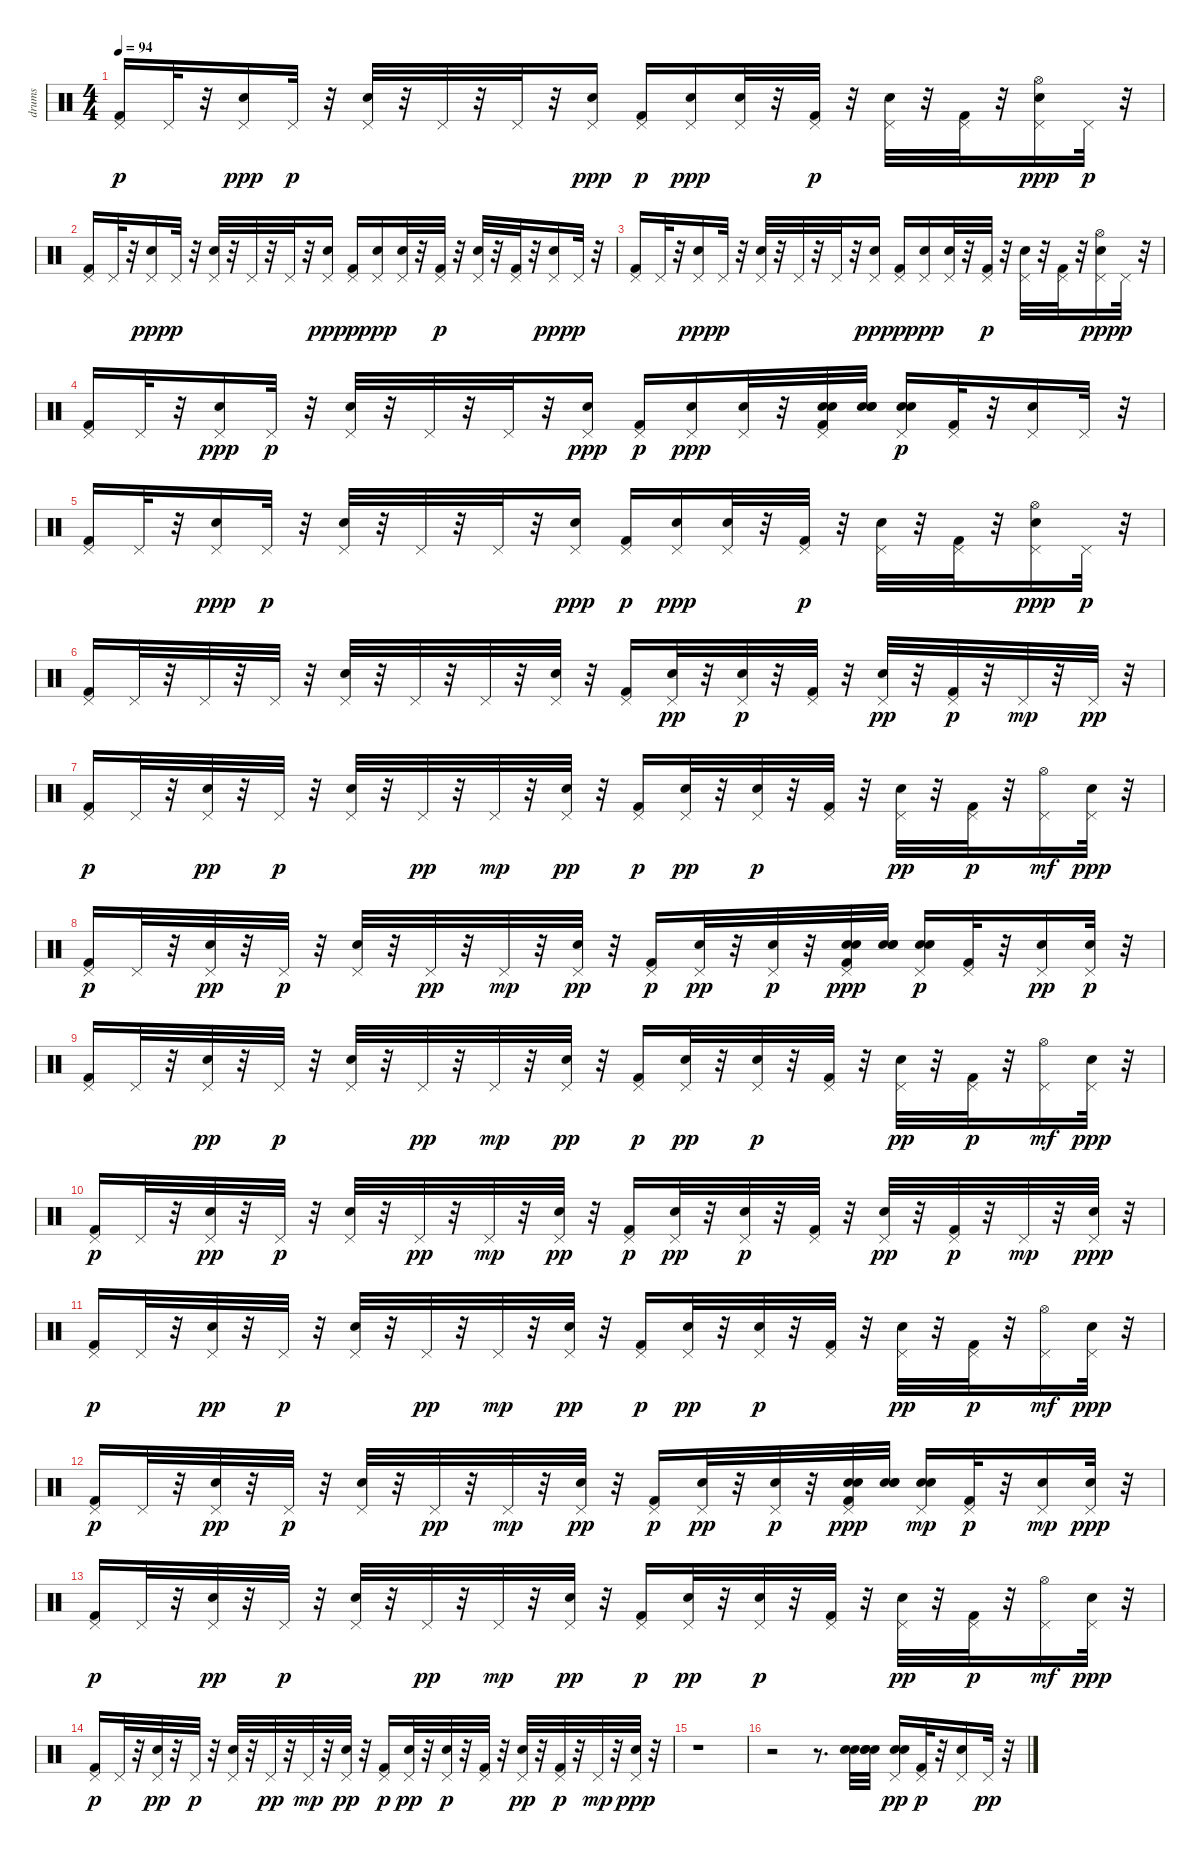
\track ("drums" "drums") {instrument percussion}
\staff {score}
\articulation defaults
\ts (4 4)
\tempo 94
\clef neutral
\ks c
("Pedal Hi-Hat (hit)" "Kick (hit) 2").16{dy p} "Pedal Hi-Hat (hit)".32 r.32 ("Pedal Hi-Hat (hit)" "Snare (hit) 2").16{dy ppp} "Pedal Hi-Hat (hit)".32{dy p} r.32 ("Snare (hit) 2" "Pedal Hi-Hat (hit)").32 r.32 "Pedal Hi-Hat (hit)".32 r.32 "Pedal Hi-Hat (hit)".32 r.32 ("Pedal Hi-Hat (hit)" "Snare (hit) 2").16{dy ppp} ("Pedal Hi-Hat (hit)" "Kick (hit) 2").16{dy p} ("Pedal Hi-Hat (hit)" "Snare (hit) 2").16{dy ppp} ("Pedal Hi-Hat (hit)" "Snare (hit) 2").32 r.32 ("Pedal Hi-Hat (hit)" "Kick (hit) 2").32{dy p} r.32 ("Snare (hit) 2" "Pedal Hi-Hat (hit)").32 r.32 ("Pedal Hi-Hat (hit)" "Kick (hit) 2").32 r.32 ("Hi-Hat (open)" "Pedal Hi-Hat (hit)" "Snare (hit) 2").16{dy ppp} "Pedal Hi-Hat (hit)".32{dy p} r.32 |
("Pedal Hi-Hat (hit)" "Kick (hit) 2").16 "Pedal Hi-Hat (hit)".32 r.32 ("Pedal Hi-Hat (hit)" "Snare (hit) 2").16{dy ppp} "Pedal Hi-Hat (hit)".32{dy p} r.32 ("Snare (hit) 2" "Pedal Hi-Hat (hit)").32 r.32 "Pedal Hi-Hat (hit)".32 r.32 "Pedal Hi-Hat (hit)".32 r.32 ("Pedal Hi-Hat (hit)" "Snare (hit) 2").16{dy ppp} ("Pedal Hi-Hat (hit)" "Kick (hit) 2").16{dy p} ("Pedal Hi-Hat (hit)" "Snare (hit) 2").16{dy ppp} ("Pedal Hi-Hat (hit)" "Snare (hit) 2").32 r.32 ("Pedal Hi-Hat (hit)" "Kick (hit) 2").32{dy p} r.32 ("Snare (hit) 2" "Pedal Hi-Hat (hit)").32 r.32 ("Pedal Hi-Hat (hit)" "Kick (hit) 2").32 r.32 ("Pedal Hi-Hat (hit)" "Snare (hit) 2").16{dy ppp} "Pedal Hi-Hat (hit)".32{dy p} r.32 |
("Pedal Hi-Hat (hit)" "Kick (hit) 2").16 "Pedal Hi-Hat (hit)".32 r.32 ("Pedal Hi-Hat (hit)" "Snare (hit) 2").16{dy ppp} "Pedal Hi-Hat (hit)".32{dy p} r.32 ("Snare (hit) 2" "Pedal Hi-Hat (hit)").32 r.32 "Pedal Hi-Hat (hit)".32 r.32 "Pedal Hi-Hat (hit)".32 r.32 ("Pedal Hi-Hat (hit)" "Snare (hit) 2").16{dy ppp} ("Pedal Hi-Hat (hit)" "Kick (hit) 2").16{dy p} ("Pedal Hi-Hat (hit)" "Snare (hit) 2").16{dy ppp} ("Pedal Hi-Hat (hit)" "Snare (hit) 2").32 r.32 ("Pedal Hi-Hat (hit)" "Kick (hit) 2").32{dy p} r.32 ("Snare (hit) 2" "Pedal Hi-Hat (hit)").32 r.32 ("Pedal Hi-Hat (hit)" "Kick (hit) 2").32 r.32 ("Hi-Hat (open)" "Pedal Hi-Hat (hit)" "Snare (hit) 2").16{dy ppp} "Pedal Hi-Hat (hit)".32{dy p} r.32 |
("Pedal Hi-Hat (hit)" "Kick (hit) 2").16 "Pedal Hi-Hat (hit)".32 r.32 ("Pedal Hi-Hat (hit)" "Snare (hit) 2").16{dy ppp} "Pedal Hi-Hat (hit)".32{dy p} r.32 ("Snare (hit) 2" "Pedal Hi-Hat (hit)").32 r.32 "Pedal Hi-Hat (hit)".32 r.32 "Pedal Hi-Hat (hit)".32 r.32 ("Pedal Hi-Hat (hit)" "Snare (hit) 2").16{dy ppp} ("Pedal Hi-Hat (hit)" "Kick (hit) 2").16{dy p} ("Pedal Hi-Hat (hit)" "Snare (hit) 2").16{dy ppp} ("Pedal Hi-Hat (hit)" "Snare (hit) 2").32 r.32 ("Snare (hit) 2" "Pedal Hi-Hat (hit)" "Kick (hit) 2" "Snare (hit) 2").32{balance 0} ("Snare (hit) 2" "Snare (hit) 2" "Snare (hit) 2").32 ("Snare (hit) 2" "Snare (hit) 2" "Pedal Hi-Hat (hit)").16{dy p} ("Pedal Hi-Hat (hit)" "Kick (hit) 2").32{balance 8} r.32 ("Snare (hit) 2" "Pedal Hi-Hat (hit)").16 "Pedal Hi-Hat (hit)".32 r.32 |
("Pedal Hi-Hat (hit)" "Kick (hit) 2").16 "Pedal Hi-Hat (hit)".32 r.32 ("Pedal Hi-Hat (hit)" "Snare (hit) 2").16{dy ppp} "Pedal Hi-Hat (hit)".32{dy p} r.32 ("Snare (hit) 2" "Pedal Hi-Hat (hit)").32 r.32 "Pedal Hi-Hat (hit)".32 r.32 "Pedal Hi-Hat (hit)".32 r.32 ("Pedal Hi-Hat (hit)" "Snare (hit) 2").16{dy ppp} ("Pedal Hi-Hat (hit)" "Kick (hit) 2").16{dy p} ("Pedal Hi-Hat (hit)" "Snare (hit) 2").16{dy ppp} ("Pedal Hi-Hat (hit)" "Snare (hit) 2").32 r.32 ("Pedal Hi-Hat (hit)" "Kick (hit) 2").32{dy p} r.32 ("Snare (hit) 2" "Pedal Hi-Hat (hit)").32 r.32 ("Pedal Hi-Hat (hit)" "Kick (hit) 2").32 r.32 ("Hi-Hat (open)" "Pedal Hi-Hat (hit)" "Snare (hit) 2").16{dy ppp} "Pedal Hi-Hat (hit)".32{dy p} r.32 |
("Pedal Hi-Hat (hit)" "Kick (hit) 2").16 "Pedal Hi-Hat (hit)".32 r.32 "Pedal Hi-Hat (hit)".32 r.32 "Pedal Hi-Hat (hit)".32 r.32 ("Snare (hit) 2" "Pedal Hi-Hat (hit)").32 r.32 "Pedal Hi-Hat (hit)".32 r.32 "Pedal Hi-Hat (hit)".32 r.32 ("Electric Snare (hit)" "Pedal Hi-Hat (hit)").32{volume 14} r.32 ("Pedal Hi-Hat (hit)" "Kick (hit) 2").16 ("Pedal Hi-Hat (hit)" "Electric Snare (hit)").32{dy pp} r.32 ("Pedal Hi-Hat (hit)" "Electric Snare (hit)").32{dy p} r.32 ("Pedal Hi-Hat (hit)" "Kick (hit) 2").32 r.32 ("Pedal Hi-Hat (hit)" "Electric Snare (hit)").32{dy pp} r.32 ("Pedal Hi-Hat (hit)" "Kick (hit) 2").32{dy p} r.32 "Pedal Hi-Hat (hit)".32{dy mp} r.32 "Pedal Hi-Hat (hit)".32{dy pp} r.32 |
("Pedal Hi-Hat (hit)" "Kick (hit) 2").16{dy p} "Pedal Hi-Hat (hit)".32 r.32 ("Pedal Hi-Hat (hit)" "Electric Snare (hit)").32{dy pp} r.32 "Pedal Hi-Hat (hit)".32{dy p} r.32 ("Pedal Hi-Hat (hit)" "Electric Snare (hit)").32 r.32 "Pedal Hi-Hat (hit)".32{dy pp} r.32 "Pedal Hi-Hat (hit)".32{dy mp} r.32 ("Pedal Hi-Hat (hit)" "Electric Snare (hit)").32{dy pp} r.32 ("Pedal Hi-Hat (hit)" "Kick (hit) 2").16{dy p} ("Pedal Hi-Hat (hit)" "Electric Snare (hit)").32{dy pp} r.32 ("Pedal Hi-Hat (hit)" "Electric Snare (hit)").32{dy p} r.32 ("Pedal Hi-Hat (hit)" "Kick (hit) 2").32 r.32 ("Pedal Hi-Hat (hit)" "Electric Snare (hit)").32{dy pp} r.32 ("Pedal Hi-Hat (hit)" "Kick (hit) 2").32{dy p} r.32 ("Hi-Hat (open)" "Pedal Hi-Hat (hit)").16{dy mf} ("Pedal Hi-Hat (hit)" "Electric Snare (hit)").32{dy ppp} r.32 |
("Pedal Hi-Hat (hit)" "Kick (hit) 2").16{dy p} "Pedal Hi-Hat (hit)".32 r.32 ("Pedal Hi-Hat (hit)" "Electric Snare (hit)").32{dy pp} r.32 "Pedal Hi-Hat (hit)".32{dy p} r.32 ("Pedal Hi-Hat (hit)" "Electric Snare (hit)").32 r.32 "Pedal Hi-Hat (hit)".32{dy pp} r.32 "Pedal Hi-Hat (hit)".32{dy mp} r.32 ("Pedal Hi-Hat (hit)" "Electric Snare (hit)").32{dy pp} r.32 ("Pedal Hi-Hat (hit)" "Kick (hit) 2").16{dy p} ("Pedal Hi-Hat (hit)" "Electric Snare (hit)").32{dy pp} r.32 ("Pedal Hi-Hat (hit)" "Electric Snare (hit)").32{dy p} r.32 ("Pedal Hi-Hat (hit)" "Snare (hit) 2" "Kick (hit) 2" "Snare (hit) 2").32{dy ppp balance 0} ("Snare (hit) 2" "Snare (hit) 2" "Snare (hit) 2").32 ("Snare (hit) 2" "Pedal Hi-Hat (hit)" "Snare (hit) 2").16{dy p} ("Pedal Hi-Hat (hit)" "Kick (hit) 2").32 r.32 ("Pedal Hi-Hat (hit)" "Snare (hit) 2").16{dy pp} ("Electric Snare (hit)" "Pedal Hi-Hat (hit)").32{dy p} r.32 |
("Pedal Hi-Hat (hit)" "Kick (hit) 2").16 "Pedal Hi-Hat (hit)".32 r.32 ("Pedal Hi-Hat (hit)" "Electric Snare (hit)").32{dy pp} r.32 "Pedal Hi-Hat (hit)".32{dy p} r.32 ("Pedal Hi-Hat (hit)" "Electric Snare (hit)").32 r.32 "Pedal Hi-Hat (hit)".32{dy pp} r.32 "Pedal Hi-Hat (hit)".32{dy mp} r.32 ("Pedal Hi-Hat (hit)" "Electric Snare (hit)").32{dy pp} r.32 ("Pedal Hi-Hat (hit)" "Kick (hit) 2").16{dy p} ("Pedal Hi-Hat (hit)" "Electric Snare (hit)").32{dy pp} r.32 ("Pedal Hi-Hat (hit)" "Electric Snare (hit)").32{dy p} r.32 ("Pedal Hi-Hat (hit)" "Kick (hit) 2").32 r.32 ("Pedal Hi-Hat (hit)" "Electric Snare (hit)").32{dy pp} r.32 ("Pedal Hi-Hat (hit)" "Kick (hit) 2").32{dy p} r.32 ("Hi-Hat (open)" "Pedal Hi-Hat (hit)").16{dy mf} ("Pedal Hi-Hat (hit)" "Electric Snare (hit)").32{dy ppp} r.32 |
("Pedal Hi-Hat (hit)" "Kick (hit) 2").16{dy p} "Pedal Hi-Hat (hit)".32 r.32 ("Pedal Hi-Hat (hit)" "Electric Snare (hit)").32{dy pp} r.32 "Pedal Hi-Hat (hit)".32{dy p} r.32 ("Pedal Hi-Hat (hit)" "Electric Snare (hit)").32 r.32 "Pedal Hi-Hat (hit)".32{dy pp} r.32 "Pedal Hi-Hat (hit)".32{dy mp} r.32 ("Pedal Hi-Hat (hit)" "Electric Snare (hit)").32{dy pp} r.32 ("Pedal Hi-Hat (hit)" "Kick (hit) 2").16{dy p} ("Pedal Hi-Hat (hit)" "Electric Snare (hit)").32{dy pp} r.32 ("Pedal Hi-Hat (hit)" "Electric Snare (hit)").32{dy p} r.32 ("Pedal Hi-Hat (hit)" "Kick (hit) 2").32 r.32 ("Pedal Hi-Hat (hit)" "Electric Snare (hit)").32{dy pp} r.32 ("Pedal Hi-Hat (hit)" "Kick (hit) 2").32{dy p} r.32 "Pedal Hi-Hat (hit)".32{dy mp} r.32 ("Pedal Hi-Hat (hit)" "Electric Snare (hit)").32{dy ppp} r.32 |
("Pedal Hi-Hat (hit)" "Kick (hit) 2").16{dy p} "Pedal Hi-Hat (hit)".32 r.32 ("Pedal Hi-Hat (hit)" "Electric Snare (hit)").32{dy pp} r.32 "Pedal Hi-Hat (hit)".32{dy p} r.32 ("Pedal Hi-Hat (hit)" "Electric Snare (hit)").32 r.32 "Pedal Hi-Hat (hit)".32{dy pp} r.32 "Pedal Hi-Hat (hit)".32{dy mp} r.32 ("Pedal Hi-Hat (hit)" "Electric Snare (hit)").32{dy pp} r.32 ("Pedal Hi-Hat (hit)" "Kick (hit) 2").16{dy p} ("Pedal Hi-Hat (hit)" "Electric Snare (hit)").32{dy pp} r.32 ("Pedal Hi-Hat (hit)" "Electric Snare (hit)").32{dy p} r.32 ("Pedal Hi-Hat (hit)" "Kick (hit) 2").32 r.32 ("Pedal Hi-Hat (hit)" "Electric Snare (hit)").32{dy pp} r.32 ("Pedal Hi-Hat (hit)" "Kick (hit) 2").32{dy p} r.32 ("Hi-Hat (open)" "Pedal Hi-Hat (hit)").16{dy mf} ("Pedal Hi-Hat (hit)" "Electric Snare (hit)").32{dy ppp} r.32 |
("Pedal Hi-Hat (hit)" "Kick (hit) 2").16{dy p} "Pedal Hi-Hat (hit)".32 r.32 ("Pedal Hi-Hat (hit)" "Electric Snare (hit)").32{dy pp} r.32 "Pedal Hi-Hat (hit)".32{dy p} r.32 ("Pedal Hi-Hat (hit)" "Electric Snare (hit)").32 r.32 "Pedal Hi-Hat (hit)".32{dy pp} r.32 "Pedal Hi-Hat (hit)".32{dy mp} r.32 ("Pedal Hi-Hat (hit)" "Electric Snare (hit)").32{dy pp} r.32 ("Pedal Hi-Hat (hit)" "Kick (hit) 2").16{dy p} ("Pedal Hi-Hat (hit)" "Electric Snare (hit)").32{dy pp} r.32 ("Pedal Hi-Hat (hit)" "Electric Snare (hit)").32{dy p} r.32 ("Snare (hit) 2" "Pedal Hi-Hat (hit)" "Kick (hit) 2" "Snare (hit) 2").32{dy ppp balance 0} ("Snare (hit) 2" "Snare (hit) 2" "Snare (hit) 2").32 ("Snare (hit) 2" "Snare (hit) 2" "Pedal Hi-Hat (hit)").16{dy mp} ("Pedal Hi-Hat (hit)" "Kick (hit) 2").32{dy p} r.32 ("Snare (hit) 2" "Pedal Hi-Hat (hit)").16{dy mp} ("Pedal Hi-Hat (hit)" "Electric Snare (hit)").32{dy ppp} r.32 |
("Pedal Hi-Hat (hit)" "Kick (hit) 2").16{dy p} "Pedal Hi-Hat (hit)".32 r.32 ("Pedal Hi-Hat (hit)" "Electric Snare (hit)").32{dy pp} r.32 "Pedal Hi-Hat (hit)".32{dy p} r.32 ("Pedal Hi-Hat (hit)" "Electric Snare (hit)").32 r.32 "Pedal Hi-Hat (hit)".32{dy pp} r.32 "Pedal Hi-Hat (hit)".32{dy mp} r.32 ("Pedal Hi-Hat (hit)" "Electric Snare (hit)").32{dy pp} r.32 ("Pedal Hi-Hat (hit)" "Kick (hit) 2").16{dy p} ("Pedal Hi-Hat (hit)" "Electric Snare (hit)").32{dy pp} r.32 ("Pedal Hi-Hat (hit)" "Electric Snare (hit)").32{dy p} r.32 ("Pedal Hi-Hat (hit)" "Kick (hit) 2").32 r.32 ("Pedal Hi-Hat (hit)" "Electric Snare (hit)").32{dy pp} r.32 ("Pedal Hi-Hat (hit)" "Kick (hit) 2").32{dy p} r.32 ("Hi-Hat (open)" "Pedal Hi-Hat (hit)").16{dy mf} ("Pedal Hi-Hat (hit)" "Electric Snare (hit)").32{dy ppp} r.32 |
("Pedal Hi-Hat (hit)" "Kick (hit) 2").16{dy p} "Pedal Hi-Hat (hit)".32 r.32 ("Pedal Hi-Hat (hit)" "Electric Snare (hit)").32{dy pp} r.32 "Pedal Hi-Hat (hit)".32{dy p} r.32 ("Pedal Hi-Hat (hit)" "Electric Snare (hit)").32 r.32 "Pedal Hi-Hat (hit)".32{dy pp} r.32 "Pedal Hi-Hat (hit)".32{dy mp} r.32 ("Pedal Hi-Hat (hit)" "Electric Snare (hit)").32{dy pp} r.32 ("Pedal Hi-Hat (hit)" "Kick (hit) 2").16{dy p} ("Pedal Hi-Hat (hit)" "Electric Snare (hit)").32{dy pp} r.32 ("Pedal Hi-Hat (hit)" "Electric Snare (hit)").32{dy p} r.32 ("Pedal Hi-Hat (hit)" "Kick (hit) 2").32 r.32 ("Pedal Hi-Hat (hit)" "Electric Snare (hit)").32{dy pp} r.32 ("Pedal Hi-Hat (hit)" "Kick (hit) 2").32{dy p} r.32 "Pedal Hi-Hat (hit)".32{dy mp} r.32 ("Pedal Hi-Hat (hit)" "Electric Snare (hit)").32{dy ppp} r.32 |
r.1 |
r.2 r.8{d} ("Snare (hit) 2" "Snare (hit) 2").32{volume 14 balance 0} ("Snare (hit) 2" "Snare (hit) 2" "Snare (hit) 2").32 ("Snare (hit) 2" "Snare (hit) 2" "Pedal Hi-Hat (hit)").16{dy pp} ("Pedal Hi-Hat (hit)" "Kick (hit) 2").32{dy p balance 8} r.32 ("Snare (hit) 2" "Pedal Hi-Hat (hit)").16 "Pedal Hi-Hat (hit)".32{dy pp} r.32
